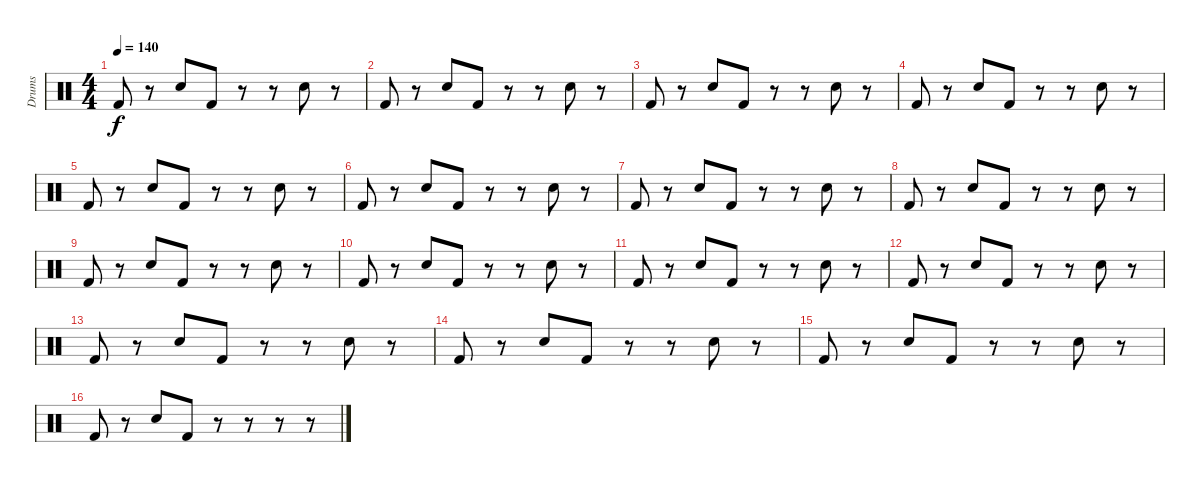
\track ("Drums" "Drums") {instrument percussion}
\staff {score}
\articulation defaults
\ts (4 4)
\tempo 140
\clef neutral
\ks c "Kick (hit) 2".8{dy f}
r.8 "Electric Snare (hit)".8 "Kick (hit) 2".8 r.8 r.8 "Electric Snare (hit)".8 r.8 |
"Kick (hit) 2".8 r.8 "Electric Snare (hit)".8 "Kick (hit) 2".8 r.8 r.8 "Electric Snare (hit)".8 r.8 |
"Kick (hit) 2".8 r.8 "Electric Snare (hit)".8 "Kick (hit) 2".8 r.8 r.8 "Electric Snare (hit)".8 r.8 |
"Kick (hit) 2".8 r.8 "Electric Snare (hit)".8 "Kick (hit) 2".8 r.8 r.8 "Electric Snare (hit)".8 r.8 |
"Kick (hit) 2".8 r.8 "Electric Snare (hit)".8 "Kick (hit) 2".8 r.8 r.8 "Electric Snare (hit)".8 r.8 |
"Kick (hit) 2".8 r.8 "Electric Snare (hit)".8 "Kick (hit) 2".8 r.8 r.8 "Electric Snare (hit)".8 r.8 |
"Kick (hit) 2".8 r.8 "Electric Snare (hit)".8 "Kick (hit) 2".8 r.8 r.8 "Electric Snare (hit)".8 r.8 |
"Kick (hit) 2".8 r.8 "Electric Snare (hit)".8 "Kick (hit) 2".8 r.8 r.8 "Electric Snare (hit)".8 r.8 |
"Kick (hit) 2".8 r.8 "Electric Snare (hit)".8 "Kick (hit) 2".8 r.8 r.8 "Electric Snare (hit)".8 r.8 |
"Kick (hit) 2".8 r.8 "Electric Snare (hit)".8 "Kick (hit) 2".8 r.8 r.8 "Electric Snare (hit)".8 r.8 |
"Kick (hit) 2".8 r.8 "Electric Snare (hit)".8 "Kick (hit) 2".8 r.8 r.8 "Electric Snare (hit)".8 r.8 |
"Kick (hit) 2".8 r.8 "Electric Snare (hit)".8 "Kick (hit) 2".8 r.8 r.8 "Electric Snare (hit)".8 r.8 |
"Kick (hit) 2".8 r.8 "Electric Snare (hit)".8 "Kick (hit) 2".8 r.8 r.8 "Electric Snare (hit)".8 r.8 |
"Kick (hit) 2".8 r.8 "Electric Snare (hit)".8 "Kick (hit) 2".8 r.8 r.8 "Electric Snare (hit)".8 r.8 |
"Kick (hit) 2".8 r.8 "Electric Snare (hit)".8 "Kick (hit) 2".8 r.8 r.8 "Electric Snare (hit)".8 r.8 |
"Kick (hit) 2".8 r.8 "Electric Snare (hit)".8 "Kick (hit) 2".8 r.8 r.8 r.8 r.8
